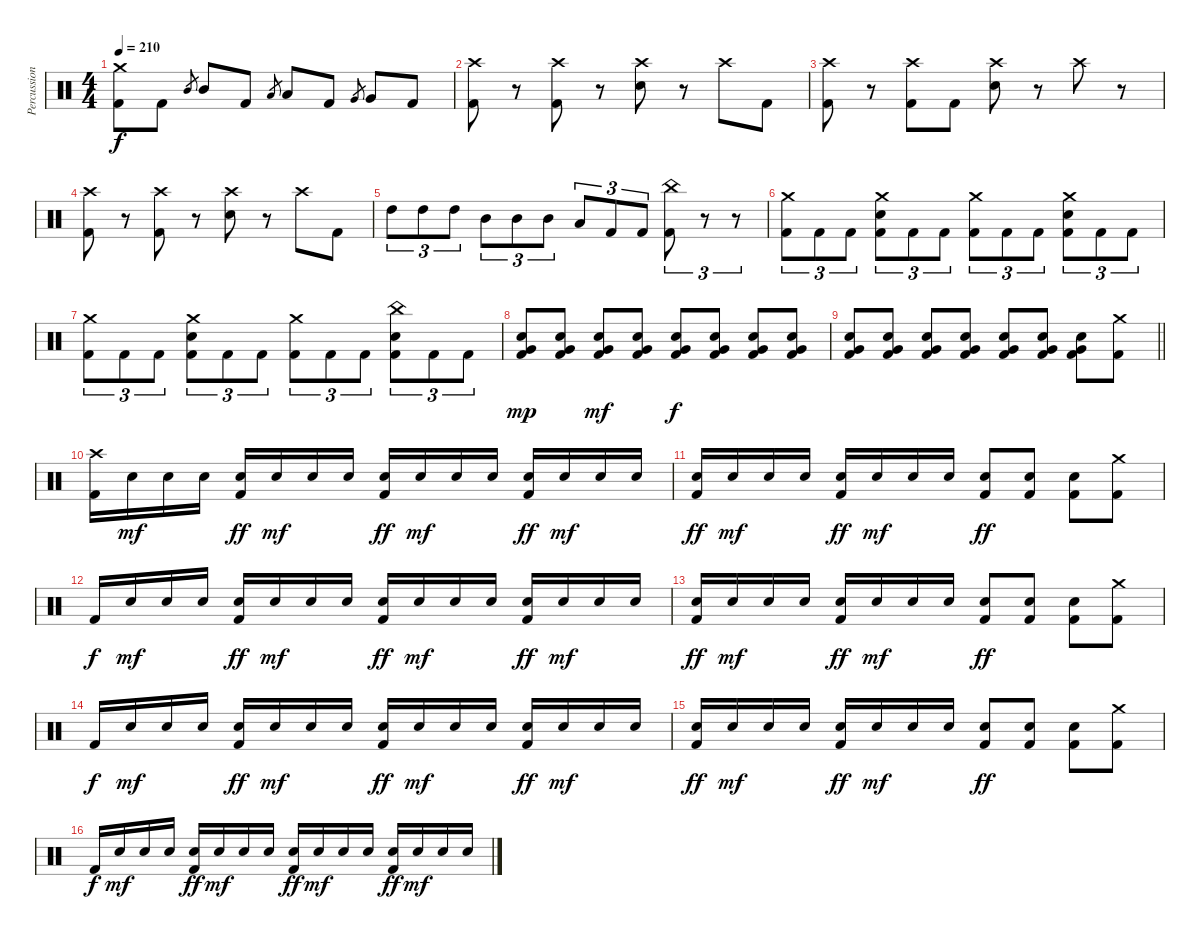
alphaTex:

\track ("Percussion" "Percussion") {instrument percussion}
\staff {score}
\articulation defaults
\ts (4 4)
\tempo 210
\clef neutral
\ks c
("Crash medium (hit)" "Kick (hit) 2").8{dy f} "Kick (hit) 2".8 "Mid Tom (hit)".8{gr} "Mid Tom (hit)".8 "Kick (hit) 2".8 "Low Tom (hit)".8{gr} "Low Tom (hit)".8 "Kick (hit) 2".8 "Very Low Tom (hit)".8{gr} "Very Low Tom (hit)".8 "Kick (hit) 2".8 |
("Crash high (hit)" "Kick (hit) 2").8 r.8 ("Crash high (hit)" "Kick (hit) 2").8 r.8 ("Crash high (hit)" "Snare (hit) 2").8 r.8 "Crash high (hit)".8 "Kick (hit) 2".8 |
("Crash high (hit)" "Kick (hit) 2").8 r.8 ("Crash high (hit)" "Kick (hit) 2").8 "Kick (hit) 2".8 ("Crash high (hit)" "Snare (hit) 2").8 r.8 "Crash high (hit)".8 r.8 |
("Crash high (hit)" "Kick (hit) 2").8 r.8 ("Crash high (hit)" "Kick (hit) 2").8 r.8 ("Crash high (hit)" "Snare (hit) 2").8 r.8 "Crash high (hit)".8 "Kick (hit) 2".8 |
"High Tom (hit)".8{tu (3 2)} "High Tom (hit)".8{tu (3 2)} "High Tom (hit)".8{tu (3 2)} "Mid Tom (hit)".8{tu (3 2)} "Mid Tom (hit)".8{tu (3 2)} "Mid Tom (hit)".8{tu (3 2)} "Low Tom (hit)".8{tu (3 2)} "Kick (hit) 2".8{tu (3 2)} "Kick (hit) 2".8{tu (3 2)} ("China (hit)" "Kick (hit) 2").8{tu (3 2)} r.8{tu (3 2)} r.8{tu (3 2)} |
("Crash medium (hit)" "Kick (hit) 2").8{tu (3 2)} "Kick (hit) 2".8{tu (3 2)} "Kick (hit) 2".8{tu (3 2)} ("Crash medium (hit)" "Snare (hit) 2" "Kick (hit) 2").8{tu (3 2)} "Kick (hit) 2".8{tu (3 2)} "Kick (hit) 2".8{tu (3 2)} ("Crash medium (hit)" "Kick (hit) 2").8{tu (3 2)} "Kick (hit) 2".8{tu (3 2)} "Kick (hit) 2".8{tu (3 2)} ("Crash medium (hit)" "Snare (hit) 2" "Kick (hit) 2").8{tu (3 2)} "Kick (hit) 2".8{tu (3 2)} "Kick (hit) 2".8{tu (3 2)} |
("Crash medium (hit)" "Kick (hit) 2").8{tu (3 2)} "Kick (hit) 2".8{tu (3 2)} "Kick (hit) 2".8{tu (3 2)} ("Crash medium (hit)" "Snare (hit) 2" "Kick (hit) 2").8{tu (3 2)} "Kick (hit) 2".8{tu (3 2)} "Kick (hit) 2".8{tu (3 2)} ("Crash medium (hit)" "Kick (hit) 2").8{tu (3 2)} "Kick (hit) 2".8{tu (3 2)} "Kick (hit) 2".8{tu (3 2)} ("China (hit)" "Snare (hit) 2" "Kick (hit) 2").8{tu (3 2)} "Kick (hit) 2".8{tu (3 2)} "Kick (hit) 2".8{tu (3 2)} |
("Very Low Tom (hit)" "Snare (hit) 2" "Kick (hit) 2").8{dy mp} ("Very Low Tom (hit)" "Snare (hit) 2" "Kick (hit) 2").8 ("Very Low Tom (hit)" "Snare (hit) 2" "Kick (hit) 2").8{dy mf} ("Very Low Tom (hit)" "Snare (hit) 2" "Kick (hit) 2").8 ("Very Low Tom (hit)" "Snare (hit) 2" "Kick (hit) 2").8{dy f} ("Very Low Tom (hit)" "Snare (hit) 2" "Kick (hit) 2").8 ("Very Low Tom (hit)" "Snare (hit) 2" "Kick (hit) 2").8 ("Very Low Tom (hit)" "Snare (hit) 2" "Kick (hit) 2").8 |
\barLineRight lightlight
("Very Low Tom (hit)" "Snare (hit) 2" "Kick (hit) 2").8 ("Very Low Tom (hit)" "Snare (hit) 2" "Kick (hit) 2").8 ("Very Low Tom (hit)" "Snare (hit) 2" "Kick (hit) 2").8 ("Very Low Tom (hit)" "Snare (hit) 2" "Kick (hit) 2").8 ("Very Low Tom (hit)" "Snare (hit) 2" "Kick (hit) 2").8 ("Very Low Tom (hit)" "Snare (hit) 2" "Kick (hit) 2").8 ("Very Low Tom (hit)" "Snare (hit) 2" "Kick (hit) 2").8 ("Crash medium (hit)" "Kick (hit) 2").8 |
\section ("" "")
("Crash high (hit)" "Kick (hit) 2").16 "Snare (hit) 2".16{dy mf} "Snare (hit) 2".16 "Snare (hit) 2".16 ("Snare (hit) 2" "Kick (hit) 2").16{dy ff} "Snare (hit) 2".16{dy mf} "Snare (hit) 2".16 "Snare (hit) 2".16 ("Snare (hit) 2" "Kick (hit) 2").16{dy ff} "Snare (hit) 2".16{dy mf} "Snare (hit) 2".16 "Snare (hit) 2".16 ("Snare (hit) 2" "Kick (hit) 2").16{dy ff} "Snare (hit) 2".16{dy mf} "Snare (hit) 2".16 "Snare (hit) 2".16 |
("Snare (hit) 2" "Kick (hit) 2").16{dy ff} "Snare (hit) 2".16{dy mf} "Snare (hit) 2".16 "Snare (hit) 2".16 ("Snare (hit) 2" "Kick (hit) 2").16{dy ff} "Snare (hit) 2".16{dy mf} "Snare (hit) 2".16 "Snare (hit) 2".16 ("Snare (hit) 2" "Kick (hit) 2").8{dy ff} ("Snare (hit) 2" "Kick (hit) 2").8 ("Snare (hit) 2" "Kick (hit) 2").8 ("Crash medium (hit)" "Kick (hit) 2").8 |
"Kick (hit) 2".16{dy f} "Snare (hit) 2".16{dy mf} "Snare (hit) 2".16 "Snare (hit) 2".16 ("Snare (hit) 2" "Kick (hit) 2").16{dy ff} "Snare (hit) 2".16{dy mf} "Snare (hit) 2".16 "Snare (hit) 2".16 ("Snare (hit) 2" "Kick (hit) 2").16{dy ff} "Snare (hit) 2".16{dy mf} "Snare (hit) 2".16 "Snare (hit) 2".16 ("Snare (hit) 2" "Kick (hit) 2").16{dy ff} "Snare (hit) 2".16{dy mf} "Snare (hit) 2".16 "Snare (hit) 2".16 |
("Snare (hit) 2" "Kick (hit) 2").16{dy ff} "Snare (hit) 2".16{dy mf} "Snare (hit) 2".16 "Snare (hit) 2".16 ("Snare (hit) 2" "Kick (hit) 2").16{dy ff} "Snare (hit) 2".16{dy mf} "Snare (hit) 2".16 "Snare (hit) 2".16 ("Snare (hit) 2" "Kick (hit) 2").8{dy ff} ("Snare (hit) 2" "Kick (hit) 2").8 ("Snare (hit) 2" "Kick (hit) 2").8 ("Crash medium (hit)" "Kick (hit) 2").8 |
"Kick (hit) 2".16{dy f} "Snare (hit) 2".16{dy mf} "Snare (hit) 2".16 "Snare (hit) 2".16 ("Snare (hit) 2" "Kick (hit) 2").16{dy ff} "Snare (hit) 2".16{dy mf} "Snare (hit) 2".16 "Snare (hit) 2".16 ("Snare (hit) 2" "Kick (hit) 2").16{dy ff} "Snare (hit) 2".16{dy mf} "Snare (hit) 2".16 "Snare (hit) 2".16 ("Snare (hit) 2" "Kick (hit) 2").16{dy ff} "Snare (hit) 2".16{dy mf} "Snare (hit) 2".16 "Snare (hit) 2".16 |
("Snare (hit) 2" "Kick (hit) 2").16{dy ff} "Snare (hit) 2".16{dy mf} "Snare (hit) 2".16 "Snare (hit) 2".16 ("Snare (hit) 2" "Kick (hit) 2").16{dy ff} "Snare (hit) 2".16{dy mf} "Snare (hit) 2".16 "Snare (hit) 2".16 ("Snare (hit) 2" "Kick (hit) 2").8{dy ff} ("Snare (hit) 2" "Kick (hit) 2").8 ("Snare (hit) 2" "Kick (hit) 2").8 ("Crash medium (hit)" "Kick (hit) 2").8 |
"Kick (hit) 2".16{dy f} "Snare (hit) 2".16{dy mf} "Snare (hit) 2".16 "Snare (hit) 2".16 ("Snare (hit) 2" "Kick (hit) 2").16{dy ff} "Snare (hit) 2".16{dy mf} "Snare (hit) 2".16 "Snare (hit) 2".16 ("Snare (hit) 2" "Kick (hit) 2").16{dy ff} "Snare (hit) 2".16{dy mf} "Snare (hit) 2".16 "Snare (hit) 2".16 ("Snare (hit) 2" "Kick (hit) 2").16{dy ff} "Snare (hit) 2".16{dy mf} "Snare (hit) 2".16 "Snare (hit) 2".16
